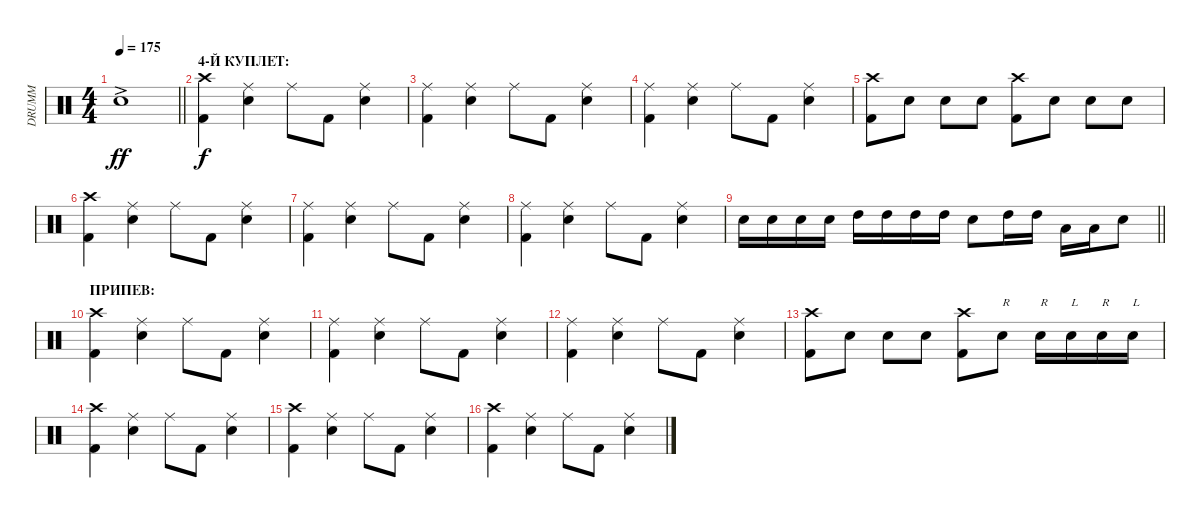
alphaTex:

\track ("DRUMM" "DRUMM") {instrument percussion}
\staff {score}
\articulation defaults
\ts (4 4)
\tempo 175
\clef neutral
\barLineRight lightlight
\ks c "Electric Snare (hit)"{ac}.1{dy ff}
|
\section ("" "4-Й КУПЛЕТ:")
("Crash high (hit)" "Kick (hit) 2").4{dy f} ("Ride (middle)" "Electric Snare (hit)").4 "Ride (middle)".8 "Kick (hit) 2".8 ("Electric Snare (hit)" "Ride (middle)").4 |
("Ride (middle)" "Kick (hit) 2").4 ("Electric Snare (hit)" "Ride (middle)").4 "Ride (middle)".8 "Kick (hit) 2".8 ("Electric Snare (hit)" "Ride (middle)").4 |
("Ride (middle)" "Kick (hit) 2").4 ("Electric Snare (hit)" "Ride (middle)").4 "Ride (middle)".8 "Kick (hit) 2".8 ("Electric Snare (hit)" "Ride (middle)").4 |
("Crash high (hit)" "Kick (hit) 2").8 "Electric Snare (hit)".8 "Electric Snare (hit)".8 "Electric Snare (hit)".8 ("Crash high (hit)" "Kick (hit) 2").8 "Electric Snare (hit)".8 "Electric Snare (hit)".8 "Electric Snare (hit)".8 |
("Crash high (hit)" "Kick (hit) 2").4 ("Ride (middle)" "Electric Snare (hit)").4 "Ride (middle)".8 "Kick (hit) 2".8 ("Electric Snare (hit)" "Ride (middle)").4 |
("Ride (middle)" "Kick (hit) 2").4 ("Electric Snare (hit)" "Ride (middle)").4 "Ride (middle)".8 "Kick (hit) 2".8 ("Electric Snare (hit)" "Ride (middle)").4 |
("Ride (middle)" "Kick (hit) 2").4 ("Electric Snare (hit)" "Ride (middle)").4 "Ride (middle)".8 "Kick (hit) 2".8 ("Electric Snare (hit)" "Ride (middle)").4 |
\barLineRight lightlight "Electric Snare (hit)".16 "Electric Snare (hit)".16 "Electric Snare (hit)".16 "Electric Snare (hit)".16 "High Tom (hit)".16 "High Tom (hit)".16 "High Tom (hit)".16 "High Tom (hit)".16 "Electric Snare (hit)".8 "High Tom (hit)".16 "High Tom (hit)".16 "Low Tom (hit)".16 "Low Tom (hit)".16 "Electric Snare (hit)".8
|
\section ("" "ПРИПЕВ:")
("Crash high (hit)" "Kick (hit) 2").4 ("Ride (middle)" "Electric Snare (hit)").4 "Ride (middle)".8 "Kick (hit) 2".8 ("Electric Snare (hit)" "Ride (middle)").4 |
("Ride (middle)" "Kick (hit) 2").4 ("Electric Snare (hit)" "Ride (middle)").4 "Ride (middle)".8 "Kick (hit) 2".8 ("Electric Snare (hit)" "Ride (middle)").4 |
("Ride (middle)" "Kick (hit) 2").4 ("Electric Snare (hit)" "Ride (middle)").4 "Ride (middle)".8 "Kick (hit) 2".8 ("Electric Snare (hit)" "Ride (middle)").4 |
("Crash high (hit)" "Kick (hit) 2").8 "Electric Snare (hit)".8 "Electric Snare (hit)".8 "Electric Snare (hit)".8 ("Crash high (hit)" "Kick (hit) 2").8 "Electric Snare (hit)".8{txt "R"} "Electric Snare (hit)".16{txt "R"} "Electric Snare (hit)".16{txt "L"} "Electric Snare (hit)".16{txt "R"} "Electric Snare (hit)".16{txt "L"} |
("Crash high (hit)" "Kick (hit) 2").4 ("Ride (middle)" "Electric Snare (hit)").4 "Ride (middle)".8 "Kick (hit) 2".8 ("Electric Snare (hit)" "Ride (middle)").4 |
("Crash high (hit)" "Kick (hit) 2").4 ("Electric Snare (hit)" "Ride (middle)").4 "Ride (middle)".8 "Kick (hit) 2".8 ("Electric Snare (hit)" "Ride (middle)").4 |
("Crash high (hit)" "Kick (hit) 2").4 ("Electric Snare (hit)" "Ride (middle)").4 "Ride (middle)".8 "Kick (hit) 2".8 ("Electric Snare (hit)" "Ride (middle)").4
